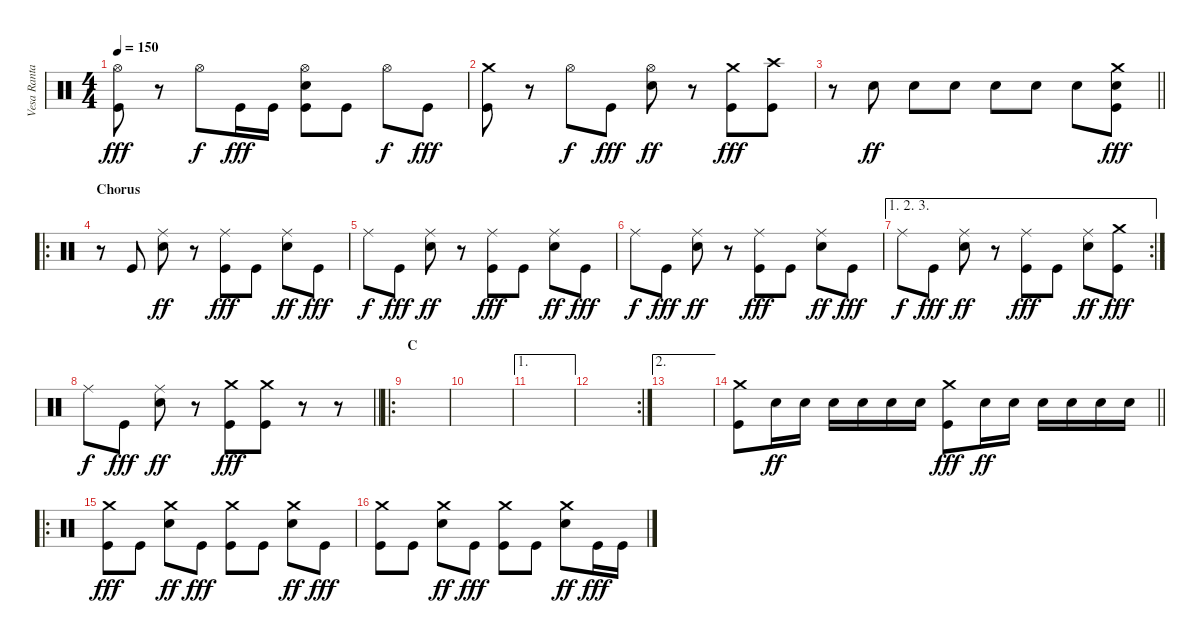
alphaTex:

\track ("Vesa Ranta" "Vesa Ranta") {instrument percussion}
\staff {score}
\articulation defaults
\ts (4 4)
\tempo 150
\clef neutral
\ks c
("Hi-Hat (open)" "Kick (hit)").8{dy fff} r.8 "Hi-Hat (open)".8{dy f} "Kick (hit)".16{dy fff} "Kick (hit)".16 ("Hi-Hat (open)" "Snare (hit) 2" "Kick (hit)").8 "Kick (hit)".8 "Hi-Hat (open)".8{dy f} "Kick (hit)".8{dy fff} |
("Crash medium (hit)" "Kick (hit)").8 r.8 "Hi-Hat (open)".8{dy f} "Kick (hit)".8{dy fff} ("Hi-Hat (open)" "Snare (hit) 2").8{dy ff} r.8 ("Crash medium (hit)" "Kick (hit)").8{dy fff} ("Crash high (hit)" "Kick (hit)").8 |
\barLineRight lightlight
r.8 "Snare (hit) 2".8{dy ff} "Snare (hit) 2".8 "Snare (hit) 2".8 "Snare (hit) 2".8 "Snare (hit) 2".8 "Snare (hit) 2".8 ("Crash medium (hit)" "Snare (hit) 2" "Kick (hit)").8{dy fff} |
\ro
\section ("" "Chorus")
r.8 "Kick (hit)".8 ("Ride (middle)" "Snare (hit) 2").8{dy ff} r.8 ("Ride (middle)" "Kick (hit)").8{dy fff} "Kick (hit)".8 ("Ride (middle)" "Snare (hit) 2").8{dy ff} "Kick (hit)".8{dy fff} |
"Ride (middle)".8{dy f} "Kick (hit)".8{dy fff} ("Ride (middle)" "Snare (hit) 2").8{dy ff} r.8 ("Ride (middle)" "Kick (hit)").8{dy fff} "Kick (hit)".8 ("Ride (middle)" "Snare (hit) 2").8{dy ff} "Kick (hit)".8{dy fff} |
"Ride (middle)".8{dy f} "Kick (hit)".8{dy fff} ("Ride (middle)" "Snare (hit) 2").8{dy ff} r.8 ("Ride (middle)" "Kick (hit)").8{dy fff} "Kick (hit)".8 ("Ride (middle)" "Snare (hit) 2").8{dy ff} "Kick (hit)".8{dy fff} |
\ae (1 2 3)
\rc 2 "Ride (middle)".8{dy f} "Kick (hit)".8{dy fff}
("Ride (middle)" "Snare (hit) 2").8{dy ff} r.8 ("Ride (middle)" "Kick (hit)").8{dy fff} "Kick (hit)".8 ("Ride (middle)" "Snare (hit) 2").8{dy ff} ("Crash medium (hit)" "Kick (hit)").8{dy fff} |
\barLineRight lightlight "Ride (middle)".8{dy f} "Kick (hit)".8{dy fff}
("Ride (middle)" "Snare (hit) 2").8{dy ff} r.8 ("Crash medium (hit)" "Kick (hit)").8{dy fff} ("Crash medium (hit)" "Kick (hit)").8 r.8 r.8 |
\ro
\section ("" "C")
|
|
\ae 1
|
\rc 2
|
\ae 2
|
\barLineRight lightlight
("Crash medium (hit)" "Kick (hit)").8 "Snare (hit) 2".16{dy ff} "Snare (hit) 2".16 "Snare (hit) 2".16 "Snare (hit) 2".16 "Snare (hit) 2".16 "Snare (hit) 2".16 ("Crash medium (hit)" "Kick (hit)").8{dy fff} "Snare (hit) 2".16{dy ff} "Snare (hit) 2".16 "Snare (hit) 2".16 "Snare (hit) 2".16 "Snare (hit) 2".16 "Snare (hit) 2".16 |
\ro
("Crash medium (hit)" "Kick (hit)").8{dy fff} "Kick (hit)".8 ("Crash medium (hit)" "Snare (hit) 2").8{dy ff} "Kick (hit)".8{dy fff} ("Crash medium (hit)" "Kick (hit)").8 "Kick (hit)".8 ("Crash medium (hit)" "Snare (hit) 2").8{dy ff} "Kick (hit)".8{dy fff} |
("Crash medium (hit)" "Kick (hit)").8 "Kick (hit)".8 ("Crash medium (hit)" "Snare (hit) 2").8{dy ff} "Kick (hit)".8{dy fff} ("Crash medium (hit)" "Kick (hit)").8 "Kick (hit)".8 ("Crash medium (hit)" "Snare (hit) 2").8{dy ff} "Kick (hit)".16{dy fff} "Kick (hit)".16
